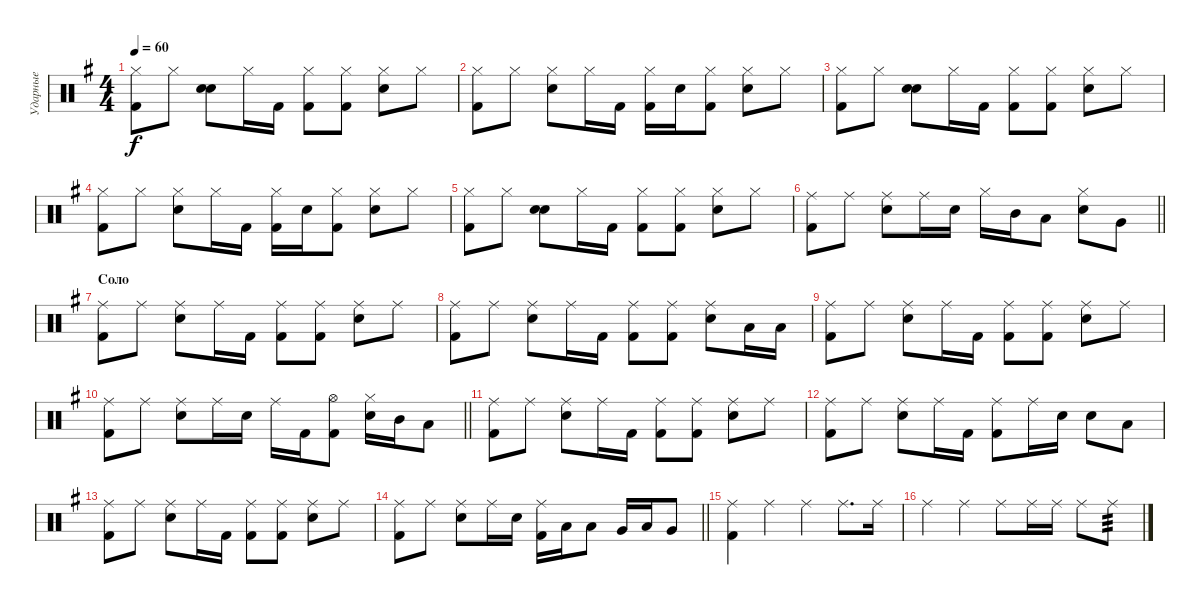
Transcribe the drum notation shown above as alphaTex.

\track ("Ударные" "Ударные") {instrument percussion}
\staff {score}
\articulation defaults
\ts (4 4)
\tempo 60
\clef neutral
\ks g
("Hi-Hat (closed)" "Kick (hit) 2").8{dy f} "Hi-Hat (closed)".8 ("Snare (hit)" "Snare (hit) 2").8 "Hi-Hat (closed)".16 "Kick (hit) 2".16 ("Hi-Hat (closed)" "Kick (hit) 2").8 ("Hi-Hat (closed)" "Kick (hit) 2").8 ("Hi-Hat (closed)" "Snare (hit) 2").8 "Hi-Hat (closed)".8 |
("Hi-Hat (closed)" "Kick (hit) 2").8 "Hi-Hat (closed)".8 ("Hi-Hat (closed)" "Snare (hit) 2").8 "Hi-Hat (closed)".16 "Kick (hit) 2".16 ("Hi-Hat (closed)" "Kick (hit) 2").16 "Snare (hit) 2".16 ("Hi-Hat (closed)" "Kick (hit) 2").8 ("Hi-Hat (closed)" "Snare (hit) 2").8 "Hi-Hat (closed)".8 |
("Hi-Hat (closed)" "Kick (hit) 2").8 "Hi-Hat (closed)".8 ("Snare (hit)" "Snare (hit) 2").8 "Hi-Hat (closed)".16 "Kick (hit) 2".16 ("Hi-Hat (closed)" "Kick (hit) 2").8 ("Hi-Hat (closed)" "Kick (hit) 2").8 ("Hi-Hat (closed)" "Snare (hit) 2").8 "Hi-Hat (closed)".8 |
("Hi-Hat (closed)" "Kick (hit) 2").8 "Hi-Hat (closed)".8 ("Hi-Hat (closed)" "Snare (hit) 2").8 "Hi-Hat (closed)".16 "Kick (hit) 2".16 ("Hi-Hat (closed)" "Kick (hit) 2").16 "Snare (hit) 2".16 ("Hi-Hat (closed)" "Kick (hit) 2").8 ("Hi-Hat (closed)" "Snare (hit) 2").8 "Hi-Hat (closed)".8 |
("Hi-Hat (closed)" "Kick (hit) 2").8 "Hi-Hat (closed)".8 ("Snare (hit)" "Snare (hit) 2").8 "Hi-Hat (closed)".16 "Kick (hit) 2".16 ("Hi-Hat (closed)" "Kick (hit) 2").8 ("Hi-Hat (closed)" "Kick (hit) 2").8 ("Hi-Hat (closed)" "Snare (hit) 2").8 "Hi-Hat (closed)".8 |
\barLineRight lightlight
("Kick (hit) 2" "Ride (middle)").8 "Ride (middle)".8 ("Snare (hit) 2" "Ride (middle)").8 "Ride (middle)".16 "Snare (hit) 2".16 "Hi-Hat (closed)".16 "Mid Tom (hit)".16 "Low Tom (hit)".8 ("Hi-Hat (closed)" "Snare (hit) 2").8 "Very Low Tom (hit)".8 |
\section ("" "Соло")
("Kick (hit) 2" "Ride (middle)").8 "Ride (middle)".8 ("Snare (hit) 2" "Ride (middle)").8 "Ride (middle)".16 "Kick (hit) 2".16 ("Kick (hit) 2" "Ride (middle)").8 ("Kick (hit) 2" "Ride (middle)").8 ("Snare (hit) 2" "Ride (middle)").8 "Ride (middle)".8 |
("Kick (hit) 2" "Ride (middle)").8 "Ride (middle)".8 ("Snare (hit) 2" "Ride (middle)").8 "Ride (middle)".16 "Kick (hit) 2".16 ("Kick (hit) 2" "Ride (middle)").8 ("Kick (hit) 2" "Ride (middle)").8 ("Snare (hit) 2" "Ride (middle)").8 "Low Tom (hit)".16 "Low Tom (hit)".16 |
("Kick (hit) 2" "Ride (middle)").8 "Ride (middle)".8 ("Snare (hit) 2" "Ride (middle)").8 "Ride (middle)".16 "Kick (hit) 2".16 ("Kick (hit) 2" "Ride (middle)").8 ("Kick (hit) 2" "Ride (middle)").8 ("Snare (hit) 2" "Ride (middle)").8 "Ride (middle)".8 |
\barLineRight lightlight
("Kick (hit) 2" "Ride (middle)").8 "Ride (middle)".8 ("Snare (hit) 2" "Ride (middle)").8 "Ride (middle)".16 "Snare (hit) 2".16 "Ride (middle)".16 "Kick (hit) 2".16 ("Hi-Hat (open)" "Kick (hit) 2").8 ("Hi-Hat (closed)" "Snare (hit) 2").16 "Mid Tom (hit)".16 "Low Tom (hit)".8 |
("Kick (hit) 2" "Ride (middle)").8 "Ride (middle)".8 ("Snare (hit) 2" "Ride (middle)").8 "Ride (middle)".16 "Kick (hit) 2".16 ("Kick (hit) 2" "Ride (middle)").8 ("Kick (hit) 2" "Ride (middle)").8 ("Snare (hit) 2" "Ride (middle)").8 "Ride (middle)".8 |
("Kick (hit) 2" "Ride (middle)").8 "Ride (middle)".8 ("Snare (hit) 2" "Ride (middle)").8 "Ride (middle)".16 "Kick (hit) 2".16 ("Kick (hit) 2" "Ride (middle)").8 "Ride (middle)".16 "Snare (hit) 2".16 "Snare (hit) 2".8 "Low Tom (hit)".8 |
("Kick (hit) 2" "Ride (middle)").8 "Ride (middle)".8 ("Snare (hit) 2" "Ride (middle)").8 "Ride (middle)".16 "Kick (hit) 2".16 ("Kick (hit) 2" "Ride (middle)").8 ("Kick (hit) 2" "Ride (middle)").8 ("Snare (hit) 2" "Ride (middle)").8 "Ride (middle)".8 |
\barLineRight lightlight
("Kick (hit) 2" "Ride (middle)").8 "Ride (middle)".8 ("Snare (hit) 2" "Ride (middle)").8 "Ride (middle)".16 "Snare (hit) 2".16 ("Kick (hit) 2" "Ride (middle)").16 "Low Tom (hit)".16 "Low Tom (hit)".8 "Very Low Tom (hit)".16 "Low Tom (hit)".16 "Very Low Tom (hit)".8 |
("Kick (hit) 2" "Ride (middle)").4 "Ride (middle)".4 "Ride (middle)".4 "Ride (middle)".8{d} "Ride (middle)".16 |
"Ride (middle)".4 "Ride (middle)".4 "Ride (middle)".8 "Ride (middle)".16 "Ride (middle)".16 "Ride (middle)".8 "Ride (middle)".8{tp 3}
